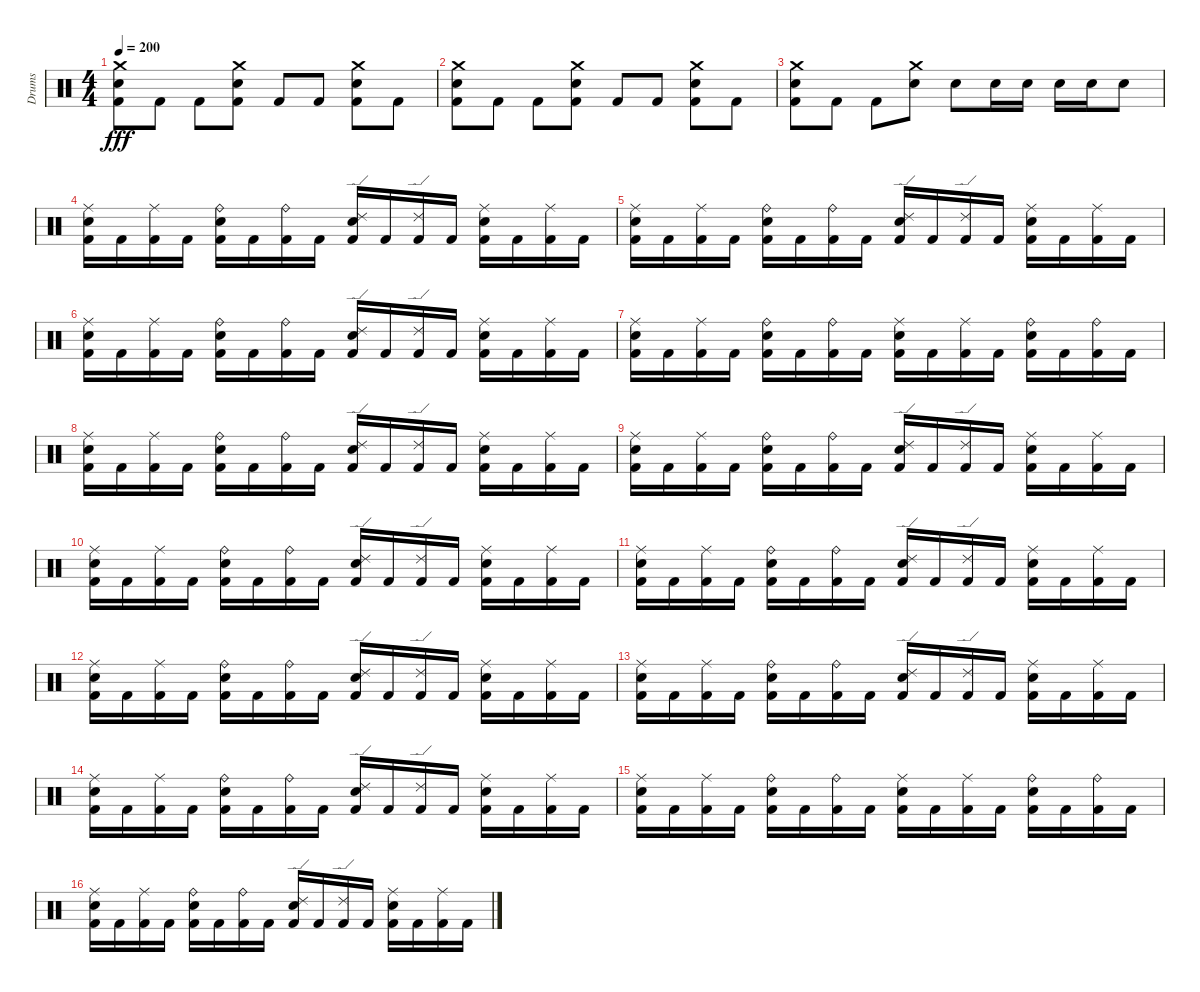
\track ("Drums" "Drums") {instrument percussion}
\staff {score}
\articulation defaults
\ts (4 4)
\tempo 200
\clef neutral
\ks c
("Crash medium (hit)" "Electric Snare (hit)" "Kick (hit) 2").8{dy fff} "Kick (hit) 2".8 "Kick (hit) 2".8 ("Crash medium (hit)" "Electric Snare (hit)" "Kick (hit) 2").8 "Kick (hit) 2".8 "Kick (hit) 2".8 ("Crash medium (hit)" "Electric Snare (hit)" "Kick (hit) 2").8 "Kick (hit) 2".8 |
("Crash medium (hit)" "Electric Snare (hit)" "Kick (hit) 2").8 "Kick (hit) 2".8 "Kick (hit) 2".8 ("Crash medium (hit)" "Electric Snare (hit)" "Kick (hit) 2").8 "Kick (hit) 2".8 "Kick (hit) 2".8 ("Crash medium (hit)" "Electric Snare (hit)" "Kick (hit) 2").8 "Kick (hit) 2".8 |
("Crash medium (hit)" "Electric Snare (hit)" "Kick (hit) 2").8 "Kick (hit) 2".8 "Kick (hit) 2".8 ("Crash medium (hit)" "Electric Snare (hit)").8 "Electric Snare (hit)".8 "Electric Snare (hit)".16 "Electric Snare (hit)".16 "Electric Snare (hit)".16 "Electric Snare (hit)".16 "Electric Snare (hit)".8 |
("Electric Snare (hit)" "Ride (middle)" "Kick (hit) 2").16 "Kick (hit) 2".16 ("Ride (middle)" "Kick (hit) 2").16 "Kick (hit) 2".16 ("Ride (bell)" "Snare (hit) 2" "Kick (hit) 2").16 "Kick (hit) 2".16 ("Ride (bell)" "Kick (hit) 2").16 "Kick (hit) 2".16 ("Ride (edge) 2" "Electric Snare (hit)" "Kick (hit) 2").16 "Kick (hit) 2".16 ("Ride (edge) 2" "Kick (hit) 2").16 "Kick (hit) 2".16 ("Ride (middle)" "Snare (hit) 2" "Kick (hit) 2").16 "Kick (hit) 2".16 ("Ride (middle)" "Kick (hit) 2").16 "Kick (hit) 2".16 |
("Electric Snare (hit)" "Ride (middle)" "Kick (hit) 2").16 "Kick (hit) 2".16 ("Ride (middle)" "Kick (hit) 2").16 "Kick (hit) 2".16 ("Ride (bell)" "Snare (hit) 2" "Kick (hit) 2").16 "Kick (hit) 2".16 ("Ride (bell)" "Kick (hit) 2").16 "Kick (hit) 2".16 ("Ride (edge) 2" "Electric Snare (hit)" "Kick (hit) 2").16 "Kick (hit) 2".16 ("Ride (edge) 2" "Kick (hit) 2").16 "Kick (hit) 2".16 ("Ride (middle)" "Snare (hit) 2" "Kick (hit) 2").16 "Kick (hit) 2".16 ("Ride (middle)" "Kick (hit) 2").16 "Kick (hit) 2".16 |
("Electric Snare (hit)" "Ride (middle)" "Kick (hit) 2").16 "Kick (hit) 2".16 ("Ride (middle)" "Kick (hit) 2").16 "Kick (hit) 2".16 ("Ride (bell)" "Snare (hit) 2" "Kick (hit) 2").16 "Kick (hit) 2".16 ("Ride (bell)" "Kick (hit) 2").16 "Kick (hit) 2".16 ("Ride (edge) 2" "Electric Snare (hit)" "Kick (hit) 2").16 "Kick (hit) 2".16 ("Ride (edge) 2" "Kick (hit) 2").16 "Kick (hit) 2".16 ("Ride (middle)" "Snare (hit) 2" "Kick (hit) 2").16 "Kick (hit) 2".16 ("Ride (middle)" "Kick (hit) 2").16 "Kick (hit) 2".16 |
("Electric Snare (hit)" "Ride (middle)" "Kick (hit) 2").16 "Kick (hit) 2".16 ("Ride (middle)" "Kick (hit) 2").16 "Kick (hit) 2".16 ("Ride (bell)" "Snare (hit) 2" "Kick (hit) 2").16 "Kick (hit) 2".16 ("Ride (bell)" "Kick (hit) 2").16 "Kick (hit) 2".16 ("Electric Snare (hit)" "Ride (middle)" "Kick (hit) 2").16 "Kick (hit) 2".16 ("Ride (middle)" "Kick (hit) 2").16 "Kick (hit) 2".16 ("Ride (bell)" "Snare (hit) 2" "Kick (hit) 2").16 "Kick (hit) 2".16 ("Ride (bell)" "Kick (hit) 2").16 "Kick (hit) 2".16 |
("Electric Snare (hit)" "Ride (middle)" "Kick (hit) 2").16 "Kick (hit) 2".16 ("Ride (middle)" "Kick (hit) 2").16 "Kick (hit) 2".16 ("Ride (bell)" "Snare (hit) 2" "Kick (hit) 2").16 "Kick (hit) 2".16 ("Ride (bell)" "Kick (hit) 2").16 "Kick (hit) 2".16 ("Ride (edge) 2" "Electric Snare (hit)" "Kick (hit) 2").16 "Kick (hit) 2".16 ("Ride (edge) 2" "Kick (hit) 2").16 "Kick (hit) 2".16 ("Ride (middle)" "Snare (hit) 2" "Kick (hit) 2").16 "Kick (hit) 2".16 ("Ride (middle)" "Kick (hit) 2").16 "Kick (hit) 2".16 |
("Electric Snare (hit)" "Ride (middle)" "Kick (hit) 2").16 "Kick (hit) 2".16 ("Ride (middle)" "Kick (hit) 2").16 "Kick (hit) 2".16 ("Ride (bell)" "Snare (hit) 2" "Kick (hit) 2").16 "Kick (hit) 2".16 ("Ride (bell)" "Kick (hit) 2").16 "Kick (hit) 2".16 ("Ride (edge) 2" "Electric Snare (hit)" "Kick (hit) 2").16 "Kick (hit) 2".16 ("Ride (edge) 2" "Kick (hit) 2").16 "Kick (hit) 2".16 ("Ride (middle)" "Snare (hit) 2" "Kick (hit) 2").16 "Kick (hit) 2".16 ("Ride (middle)" "Kick (hit) 2").16 "Kick (hit) 2".16 |
("Electric Snare (hit)" "Ride (middle)" "Kick (hit) 2").16 "Kick (hit) 2".16 ("Ride (middle)" "Kick (hit) 2").16 "Kick (hit) 2".16 ("Ride (bell)" "Snare (hit) 2" "Kick (hit) 2").16 "Kick (hit) 2".16 ("Ride (bell)" "Kick (hit) 2").16 "Kick (hit) 2".16 ("Ride (edge) 2" "Electric Snare (hit)" "Kick (hit) 2").16 "Kick (hit) 2".16 ("Ride (edge) 2" "Kick (hit) 2").16 "Kick (hit) 2".16 ("Ride (middle)" "Snare (hit) 2" "Kick (hit) 2").16 "Kick (hit) 2".16 ("Ride (middle)" "Kick (hit) 2").16 "Kick (hit) 2".16 |
("Electric Snare (hit)" "Ride (middle)" "Kick (hit) 2").16 "Kick (hit) 2".16 ("Ride (middle)" "Kick (hit) 2").16 "Kick (hit) 2".16 ("Ride (bell)" "Snare (hit) 2" "Kick (hit) 2").16 "Kick (hit) 2".16 ("Ride (bell)" "Kick (hit) 2").16 "Kick (hit) 2".16 ("Ride (edge) 2" "Electric Snare (hit)" "Kick (hit) 2").16 "Kick (hit) 2".16 ("Ride (edge) 2" "Kick (hit) 2").16 "Kick (hit) 2".16 ("Ride (middle)" "Snare (hit) 2" "Kick (hit) 2").16 "Kick (hit) 2".16 ("Ride (middle)" "Kick (hit) 2").16 "Kick (hit) 2".16 |
("Electric Snare (hit)" "Ride (middle)" "Kick (hit) 2").16 "Kick (hit) 2".16 ("Ride (middle)" "Kick (hit) 2").16 "Kick (hit) 2".16 ("Ride (bell)" "Snare (hit) 2" "Kick (hit) 2").16 "Kick (hit) 2".16 ("Ride (bell)" "Kick (hit) 2").16 "Kick (hit) 2".16 ("Ride (edge) 2" "Electric Snare (hit)" "Kick (hit) 2").16 "Kick (hit) 2".16 ("Ride (edge) 2" "Kick (hit) 2").16 "Kick (hit) 2".16 ("Ride (middle)" "Snare (hit) 2" "Kick (hit) 2").16 "Kick (hit) 2".16 ("Ride (middle)" "Kick (hit) 2").16 "Kick (hit) 2".16 |
("Electric Snare (hit)" "Ride (middle)" "Kick (hit) 2").16 "Kick (hit) 2".16 ("Ride (middle)" "Kick (hit) 2").16 "Kick (hit) 2".16 ("Ride (bell)" "Snare (hit) 2" "Kick (hit) 2").16 "Kick (hit) 2".16 ("Ride (bell)" "Kick (hit) 2").16 "Kick (hit) 2".16 ("Ride (edge) 2" "Electric Snare (hit)" "Kick (hit) 2").16 "Kick (hit) 2".16 ("Ride (edge) 2" "Kick (hit) 2").16 "Kick (hit) 2".16 ("Ride (middle)" "Snare (hit) 2" "Kick (hit) 2").16 "Kick (hit) 2".16 ("Ride (middle)" "Kick (hit) 2").16 "Kick (hit) 2".16 |
("Electric Snare (hit)" "Ride (middle)" "Kick (hit) 2").16 "Kick (hit) 2".16 ("Ride (middle)" "Kick (hit) 2").16 "Kick (hit) 2".16 ("Ride (bell)" "Snare (hit) 2" "Kick (hit) 2").16 "Kick (hit) 2".16 ("Ride (bell)" "Kick (hit) 2").16 "Kick (hit) 2".16 ("Ride (edge) 2" "Electric Snare (hit)" "Kick (hit) 2").16 "Kick (hit) 2".16 ("Ride (edge) 2" "Kick (hit) 2").16 "Kick (hit) 2".16 ("Ride (middle)" "Snare (hit) 2" "Kick (hit) 2").16 "Kick (hit) 2".16 ("Ride (middle)" "Kick (hit) 2").16 "Kick (hit) 2".16 |
("Electric Snare (hit)" "Ride (middle)" "Kick (hit) 2").16 "Kick (hit) 2".16 ("Ride (middle)" "Kick (hit) 2").16 "Kick (hit) 2".16 ("Ride (bell)" "Snare (hit) 2" "Kick (hit) 2").16 "Kick (hit) 2".16 ("Ride (bell)" "Kick (hit) 2").16 "Kick (hit) 2".16 ("Electric Snare (hit)" "Ride (middle)" "Kick (hit) 2").16 "Kick (hit) 2".16 ("Ride (middle)" "Kick (hit) 2").16 "Kick (hit) 2".16 ("Ride (bell)" "Snare (hit) 2" "Kick (hit) 2").16 "Kick (hit) 2".16 ("Ride (bell)" "Kick (hit) 2").16 "Kick (hit) 2".16 |
("Electric Snare (hit)" "Ride (middle)" "Kick (hit) 2").16 "Kick (hit) 2".16 ("Ride (middle)" "Kick (hit) 2").16 "Kick (hit) 2".16 ("Ride (bell)" "Snare (hit) 2" "Kick (hit) 2").16 "Kick (hit) 2".16 ("Ride (bell)" "Kick (hit) 2").16 "Kick (hit) 2".16 ("Ride (edge) 2" "Electric Snare (hit)" "Kick (hit) 2").16 "Kick (hit) 2".16 ("Ride (edge) 2" "Kick (hit) 2").16 "Kick (hit) 2".16 ("Ride (middle)" "Snare (hit) 2" "Kick (hit) 2").16 "Kick (hit) 2".16 ("Ride (middle)" "Kick (hit) 2").16 "Kick (hit) 2".16
